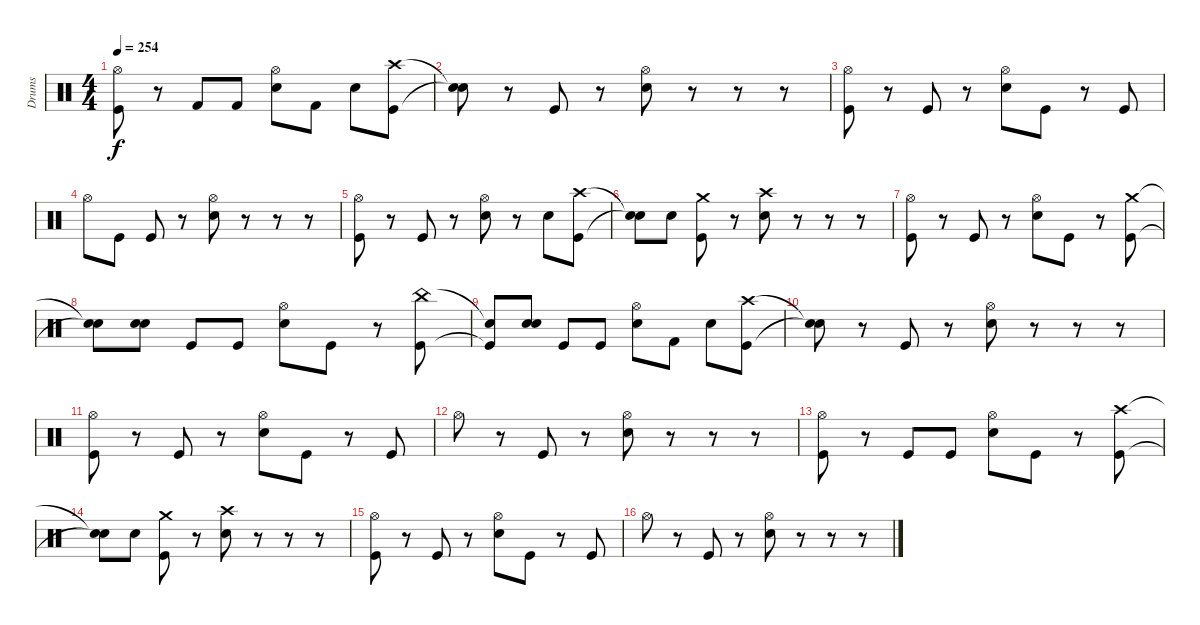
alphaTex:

\track ("Drums" "Drums") {instrument percussion}
\staff {score}
\articulation defaults
\ts (4 4)
\tempo 254
\clef neutral
\ks c
("Hi-Hat (open)" "Kick (hit)").8{dy f} r.8 "Kick (hit) 2".8 "Kick (hit) 2".8 ("Hi-Hat (open)" "Electric Snare (hit)").8 "Kick (hit) 2".8 "Electric Snare (hit)".8 ("Crash high (hit)" "Kick (hit)").8 |
("Snare (hit)"{t} "Snare (hit)"{t}).8 r.8 "Kick (hit)".8 r.8 ("Hi-Hat (open)" "Electric Snare (hit)").8 r.8 r.8 r.8 |
("Hi-Hat (open)" "Kick (hit)").8 r.8 "Kick (hit)".8 r.8 ("Hi-Hat (open)" "Electric Snare (hit)").8 "Kick (hit)".8 r.8 "Kick (hit)".8 |
"Hi-Hat (open)".8 "Kick (hit)".8 "Kick (hit)".8 r.8 ("Hi-Hat (open)" "Electric Snare (hit)").8 r.8 r.8 r.8 |
("Hi-Hat (open)" "Kick (hit)").8 r.8 "Kick (hit)".8 r.8 ("Hi-Hat (open)" "Electric Snare (hit)").8 r.8 "Electric Snare (hit)".8 ("Crash high (hit)" "Kick (hit)").8 |
("Snare (hit)"{t} "Snare (hit)"{t}).8 "Electric Snare (hit)".8 ("Crash medium (hit)" "Kick (hit)").8 r.8 ("Crash high (hit)" "Electric Snare (hit)").8 r.8 r.8 r.8 |
("Hi-Hat (open)" "Kick (hit)").8 r.8 "Kick (hit)".8 r.8 ("Hi-Hat (open)" "Electric Snare (hit)").8 "Kick (hit)".8 r.8 ("Crash medium (hit)" "Kick (hit)").8 |
("Snare (hit)"{t} "Snare (hit)"{t}).8 ("Electric Snare (hit)" "Electric Snare (hit)").8{bd 480} "Kick (hit)".8 "Kick (hit)".8 ("Hi-Hat (open)" "Electric Snare (hit)").8 "Kick (hit)".8 r.8 ("China (hit)" "Kick (hit)").8 |
("Snare (hit)"{t} "Kick (hit)"{t}).8 ("Electric Snare (hit)" "Electric Snare (hit)").8{bd 480} "Kick (hit)".8 "Kick (hit)".8 ("Hi-Hat (open)" "Electric Snare (hit)").8 "Kick (hit) 2".8 "Electric Snare (hit)".8 ("Crash high (hit)" "Kick (hit)").8 |
("Snare (hit)"{t} "Snare (hit)"{t}).8 r.8 "Kick (hit)".8 r.8 ("Hi-Hat (open)" "Electric Snare (hit)").8 r.8 r.8 r.8 |
("Hi-Hat (open)" "Kick (hit)").8 r.8 "Kick (hit)".8 r.8 ("Hi-Hat (open)" "Electric Snare (hit)").8 "Kick (hit)".8 r.8 "Kick (hit)".8 |
"Hi-Hat (open)".8 r.8 "Kick (hit)".8 r.8 ("Hi-Hat (open)" "Electric Snare (hit)").8 r.8 r.8 r.8 |
("Hi-Hat (open)" "Kick (hit)").8 r.8 "Kick (hit)".8 "Kick (hit)".8 ("Hi-Hat (open)" "Electric Snare (hit)").8 "Kick (hit)".8 r.8 ("Crash high (hit)" "Kick (hit)").8 |
("Snare (hit)"{t} "Snare (hit)"{t}).8 "Electric Snare (hit)".8 ("Crash medium (hit)" "Kick (hit)").8 r.8 ("Crash high (hit)" "Electric Snare (hit)").8 r.8 r.8 r.8 |
("Hi-Hat (open)" "Kick (hit)").8 r.8 "Kick (hit)".8 r.8 ("Hi-Hat (open)" "Electric Snare (hit)").8 "Kick (hit)".8 r.8 "Kick (hit)".8 |
"Hi-Hat (open)".8 r.8 "Kick (hit)".8 r.8 ("Hi-Hat (open)" "Electric Snare (hit)").8 r.8 r.8 r.8
